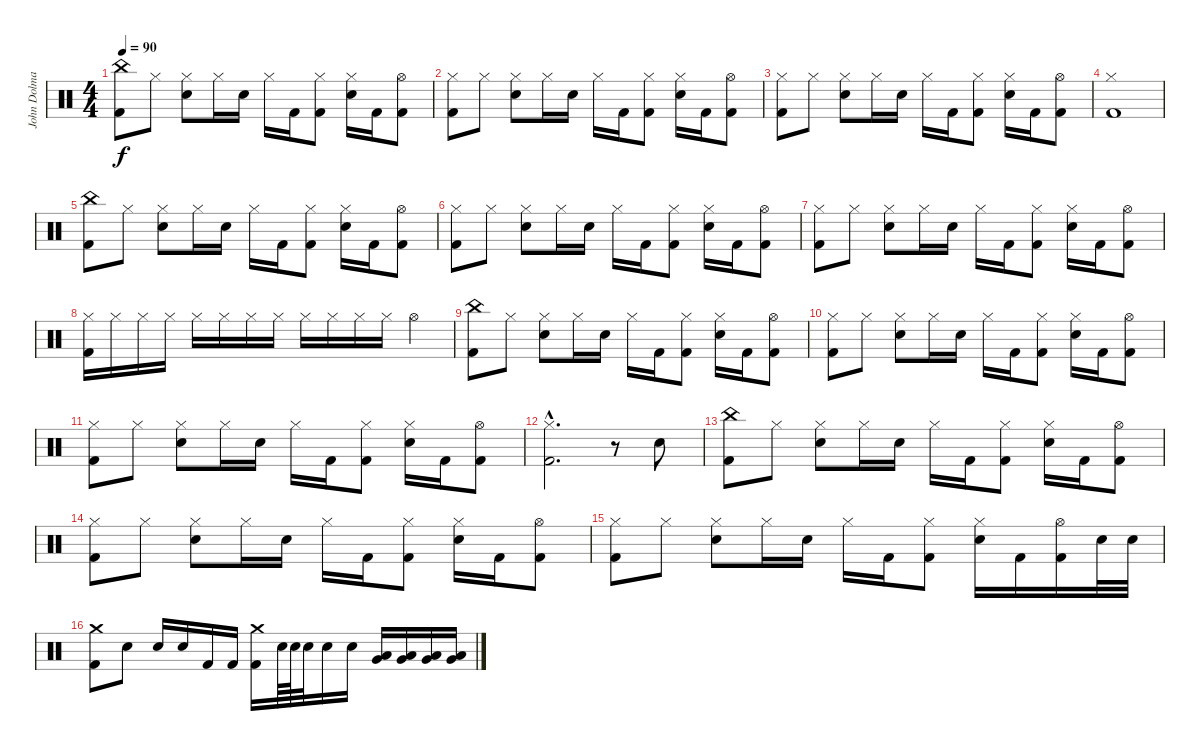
\track ("John Dolmayan" "John Dolma") {instrument percussion}
\staff {score}
\articulation defaults
\ts (4 4)
\tempo 90
\clef neutral
\ks c
("China (hit)" "Kick (hit) 2").8{dy f} "Hi-Hat (closed)".8 ("Hi-Hat (closed)" "Electric Snare (hit)").8 "Hi-Hat (closed)".16 "Electric Snare (hit)".16 "Hi-Hat (closed)".16 "Kick (hit) 2".16 ("Hi-Hat (closed)" "Kick (hit) 2").8 ("Hi-Hat (closed)" "Electric Snare (hit)").16 "Kick (hit) 2".16 ("Hi-Hat (open)" "Kick (hit) 2").8 |
("Hi-Hat (closed)" "Kick (hit) 2").8 "Hi-Hat (closed)".8 ("Hi-Hat (closed)" "Electric Snare (hit)").8 "Hi-Hat (closed)".16 "Electric Snare (hit)".16 "Hi-Hat (closed)".16 "Kick (hit) 2".16 ("Hi-Hat (closed)" "Kick (hit) 2").8 ("Hi-Hat (closed)" "Electric Snare (hit)").16 "Kick (hit) 2".16 ("Hi-Hat (open)" "Kick (hit) 2").8 |
("Hi-Hat (closed)" "Kick (hit) 2").8 "Hi-Hat (closed)".8 ("Hi-Hat (closed)" "Electric Snare (hit)").8 "Hi-Hat (closed)".16 "Electric Snare (hit)".16 "Hi-Hat (closed)".16 "Kick (hit) 2".16 ("Hi-Hat (closed)" "Kick (hit) 2").8 ("Hi-Hat (closed)" "Electric Snare (hit)").16 "Kick (hit) 2".16 ("Hi-Hat (open)" "Kick (hit) 2").8 |
("Hi-Hat (closed)" "Kick (hit) 2").1 |
("China (hit)" "Kick (hit) 2").8 "Hi-Hat (closed)".8 ("Hi-Hat (closed)" "Electric Snare (hit)").8 "Hi-Hat (closed)".16 "Electric Snare (hit)".16 "Hi-Hat (closed)".16 "Kick (hit) 2".16 ("Hi-Hat (closed)" "Kick (hit) 2").8 ("Hi-Hat (closed)" "Electric Snare (hit)").16 "Kick (hit) 2".16 ("Hi-Hat (open)" "Kick (hit) 2").8 |
("Hi-Hat (closed)" "Kick (hit) 2").8 "Hi-Hat (closed)".8 ("Hi-Hat (closed)" "Electric Snare (hit)").8 "Hi-Hat (closed)".16 "Electric Snare (hit)".16 "Hi-Hat (closed)".16 "Kick (hit) 2".16 ("Hi-Hat (closed)" "Kick (hit) 2").8 ("Hi-Hat (closed)" "Electric Snare (hit)").16 "Kick (hit) 2".16 ("Hi-Hat (open)" "Kick (hit) 2").8 |
("Hi-Hat (closed)" "Kick (hit) 2").8 "Hi-Hat (closed)".8 ("Hi-Hat (closed)" "Electric Snare (hit)").8 "Hi-Hat (closed)".16 "Electric Snare (hit)".16 "Hi-Hat (closed)".16 "Kick (hit) 2".16 ("Hi-Hat (closed)" "Kick (hit) 2").8 ("Hi-Hat (closed)" "Electric Snare (hit)").16 "Kick (hit) 2".16 ("Hi-Hat (open)" "Kick (hit) 2").8 |
("Hi-Hat (closed)" "Kick (hit) 2").16 "Hi-Hat (closed)".16 "Hi-Hat (closed)".16 "Hi-Hat (closed)".16 "Hi-Hat (closed)".16 "Hi-Hat (closed)".16 "Hi-Hat (closed)".16 "Hi-Hat (closed)".16 "Hi-Hat (closed)".16 "Hi-Hat (closed)".16 "Hi-Hat (closed)".16 "Hi-Hat (closed)".16 "Hi-Hat (open)".4 |
("China (hit)" "Kick (hit) 2").8 "Hi-Hat (closed)".8 ("Hi-Hat (closed)" "Electric Snare (hit)").8 "Hi-Hat (closed)".16 "Electric Snare (hit)".16 "Hi-Hat (closed)".16 "Kick (hit) 2".16 ("Hi-Hat (closed)" "Kick (hit) 2").8 ("Hi-Hat (closed)" "Electric Snare (hit)").16 "Kick (hit) 2".16 ("Hi-Hat (open)" "Kick (hit) 2").8 |
("Hi-Hat (closed)" "Kick (hit) 2").8 "Hi-Hat (closed)".8 ("Hi-Hat (closed)" "Electric Snare (hit)").8 "Hi-Hat (closed)".16 "Electric Snare (hit)".16 "Hi-Hat (closed)".16 "Kick (hit) 2".16 ("Hi-Hat (closed)" "Kick (hit) 2").8 ("Hi-Hat (closed)" "Electric Snare (hit)").16 "Kick (hit) 2".16 ("Hi-Hat (open)" "Kick (hit) 2").8 |
("Hi-Hat (closed)" "Kick (hit) 2").8 "Hi-Hat (closed)".8 ("Hi-Hat (closed)" "Electric Snare (hit)").8 "Hi-Hat (closed)".16 "Electric Snare (hit)".16 "Hi-Hat (closed)".16 "Kick (hit) 2".16 ("Hi-Hat (closed)" "Kick (hit) 2").8 ("Hi-Hat (closed)" "Electric Snare (hit)").16 "Kick (hit) 2".16 ("Hi-Hat (open)" "Kick (hit) 2").8 |
("Hi-Hat (closed)"{hac} "Kick (hit) 2"{hac}).2{d} r.8 "Electric Snare (hit)".8 |
("China (hit)" "Kick (hit) 2").8 "Hi-Hat (closed)".8 ("Hi-Hat (closed)" "Electric Snare (hit)").8 "Hi-Hat (closed)".16 "Electric Snare (hit)".16 "Hi-Hat (closed)".16 "Kick (hit) 2".16 ("Hi-Hat (closed)" "Kick (hit) 2").8 ("Hi-Hat (closed)" "Electric Snare (hit)").16 "Kick (hit) 2".16 ("Hi-Hat (open)" "Kick (hit) 2").8 |
("Hi-Hat (closed)" "Kick (hit) 2").8 "Hi-Hat (closed)".8 ("Hi-Hat (closed)" "Electric Snare (hit)").8 "Hi-Hat (closed)".16 "Electric Snare (hit)".16 "Hi-Hat (closed)".16 "Kick (hit) 2".16 ("Hi-Hat (closed)" "Kick (hit) 2").8 ("Hi-Hat (closed)" "Electric Snare (hit)").16 "Kick (hit) 2".16 ("Hi-Hat (open)" "Kick (hit) 2").8 |
("Hi-Hat (closed)" "Kick (hit) 2").8 "Hi-Hat (closed)".8 ("Hi-Hat (closed)" "Electric Snare (hit)").8 "Hi-Hat (closed)".16 "Electric Snare (hit)".16 "Hi-Hat (closed)".16 "Kick (hit) 2".16 ("Hi-Hat (closed)" "Kick (hit) 2").8 ("Hi-Hat (closed)" "Electric Snare (hit)").16 "Kick (hit) 2".16 ("Hi-Hat (open)" "Kick (hit) 2").16 "Electric Snare (hit)".32 "Electric Snare (hit)".32 |
("Crash medium (hit)" "Kick (hit) 2").8 "Electric Snare (hit)".8 "Electric Snare (hit)".16 "Electric Snare (hit)".16 "Kick (hit) 2".16 "Kick (hit) 2".16 ("Crash medium (hit)" "Kick (hit) 2").16 "Electric Snare (hit)".64 "Electric Snare (hit)".64 "Electric Snare (hit)".32 "Electric Snare (hit)".16 "Electric Snare (hit)".16 ("Low Tom (hit)" "Very Low Tom (hit)").16 ("Low Tom (hit)" "Very Low Tom (hit)").16 ("Very Low Tom (hit)" "Low Floor Tom (hit)").16 ("Very Low Tom (hit)" "Low Floor Tom (hit)").16
